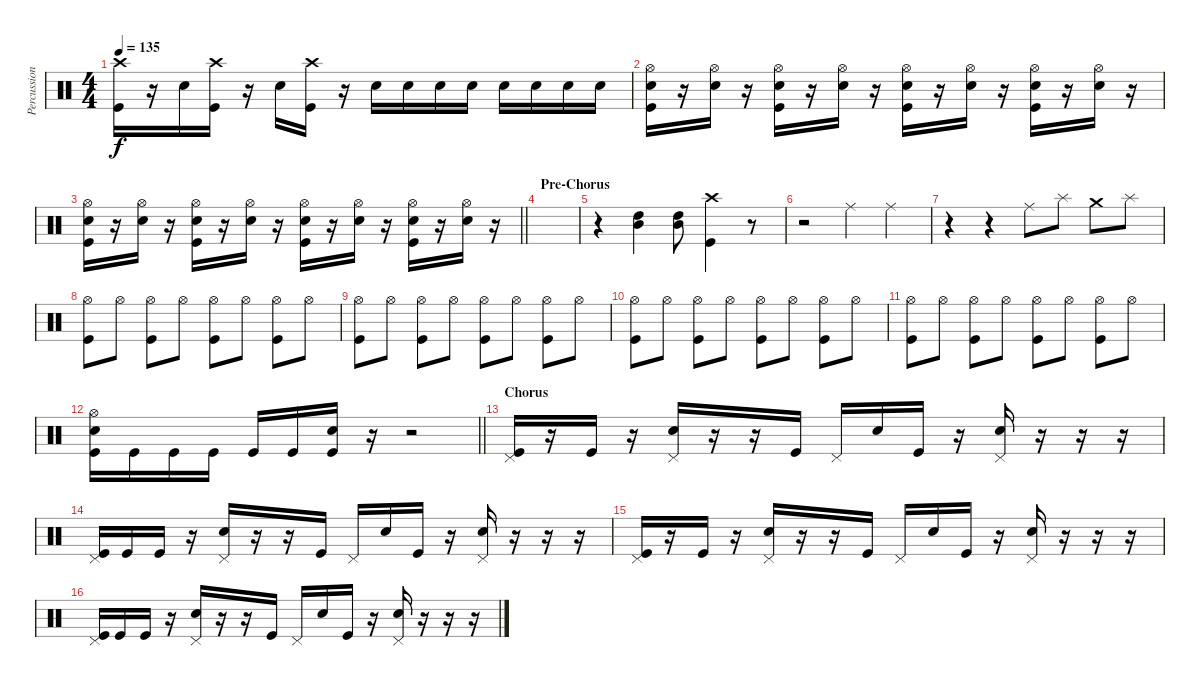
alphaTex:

\track ("Percussion" "Percussion") {instrument percussion}
\staff {score}
\articulation defaults
\ts (4 4)
\tempo 135
\clef neutral
\ks c
("Crash high (hit)" "Kick (hit)").16{dy f} r.16 "Snare (hit) 2".16 ("Crash high (hit)" "Kick (hit)").16 r.16 "Snare (hit) 2".16 ("Crash high (hit)" "Kick (hit)").16 r.16 "Snare (hit) 2".16 "Snare (hit) 2".16 "Snare (hit) 2".16 "Snare (hit) 2".16 "Snare (hit) 2".16 "Snare (hit) 2".16 "Snare (hit) 2".16 "Snare (hit) 2".16 |
("Hi-Hat (open)" "Snare (hit) 2" "Kick (hit)").16 r.16 ("Hi-Hat (open)" "Snare (hit) 2").16 r.16 ("Hi-Hat (open)" "Snare (hit) 2" "Kick (hit)").16 r.16 ("Hi-Hat (open)" "Snare (hit) 2").16 r.16 ("Hi-Hat (open)" "Snare (hit) 2" "Kick (hit)").16 r.16 ("Hi-Hat (open)" "Snare (hit) 2").16 r.16 ("Hi-Hat (open)" "Snare (hit) 2" "Kick (hit)").16 r.16 ("Hi-Hat (open)" "Snare (hit) 2").16 r.16 |
\barLineRight lightlight
("Hi-Hat (open)" "Snare (hit) 2" "Kick (hit)").16 r.16 ("Hi-Hat (open)" "Snare (hit) 2").16 r.16 ("Hi-Hat (open)" "Snare (hit) 2" "Kick (hit)").16 r.16 ("Hi-Hat (open)" "Snare (hit) 2").16 r.16 ("Hi-Hat (open)" "Snare (hit) 2" "Kick (hit)").16 r.16 ("Hi-Hat (open)" "Snare (hit) 2").16 r.16 ("Hi-Hat (open)" "Snare (hit) 2" "Kick (hit)").16 r.16 ("Hi-Hat (open)" "Snare (hit) 2").16 r.16 |
\section ("" "Pre-Chorus")
|
r.4 ("Mid Tom (hit)" "High Tom (hit)").4 ("Mid Tom (hit)" "High Tom (hit)").8 ("Crash high (hit)" "Kick (hit)").4 r.8 |
r.2 "Ride (middle)".4 "Ride (middle)".4 |
r.4 r.4 "Ride (middle)".8 "Splash (hit)".8 "Crash medium (hit)".8 "Splash (hit)".8 |
("Hi-Hat (open)" "Kick (hit)").8 "Hi-Hat (open)".8 ("Hi-Hat (open)" "Kick (hit)").8 "Hi-Hat (open)".8 ("Hi-Hat (open)" "Kick (hit)").8 "Hi-Hat (open)".8 ("Hi-Hat (open)" "Kick (hit)").8 "Hi-Hat (open)".8 |
("Hi-Hat (open)" "Kick (hit)").8 "Hi-Hat (open)".8 ("Hi-Hat (open)" "Kick (hit)").8 "Hi-Hat (open)".8 ("Hi-Hat (open)" "Kick (hit)").8 "Hi-Hat (open)".8 ("Hi-Hat (open)" "Kick (hit)").8 "Hi-Hat (open)".8 |
("Hi-Hat (open)" "Kick (hit)").8 "Hi-Hat (open)".8 ("Hi-Hat (open)" "Kick (hit)").8 "Hi-Hat (open)".8 ("Hi-Hat (open)" "Kick (hit)").8 "Hi-Hat (open)".8 ("Hi-Hat (open)" "Kick (hit)").8 "Hi-Hat (open)".8 |
("Hi-Hat (open)" "Kick (hit)").8 "Hi-Hat (open)".8 ("Hi-Hat (open)" "Kick (hit)").8 "Hi-Hat (open)".8 ("Hi-Hat (open)" "Kick (hit)").8 "Hi-Hat (open)".8 ("Hi-Hat (open)" "Kick (hit)").8 "Hi-Hat (open)".8 |
\barLineRight lightlight
("Hi-Hat (open)" "Snare (hit) 2" "Kick (hit)").16 "Kick (hit)".16 "Kick (hit)".16 "Kick (hit)".16 "Kick (hit)".16 "Kick (hit)".16 ("Snare (hit) 2" "Kick (hit)").16 r.16 r.2 |
\section ("" "Chorus")
("Pedal Hi-Hat (hit)" "Kick (hit)").16 r.16 "Kick (hit)".16 r.16 ("Pedal Hi-Hat (hit)" "Snare (hit) 2").16 r.16 r.16 "Kick (hit)".16 "Pedal Hi-Hat (hit)".16 "Snare (hit) 2".16 "Kick (hit)".16 r.16 ("Pedal Hi-Hat (hit)" "Snare (hit) 2").16 r.16 r.16 r.16 |
("Pedal Hi-Hat (hit)" "Kick (hit)").16 "Kick (hit)".16 "Kick (hit)".16 r.16 ("Pedal Hi-Hat (hit)" "Snare (hit) 2").16 r.16 r.16 "Kick (hit)".16 "Pedal Hi-Hat (hit)".16 "Snare (hit) 2".16 "Kick (hit)".16 r.16 ("Pedal Hi-Hat (hit)" "Snare (hit) 2").16 r.16 r.16 r.16 |
("Pedal Hi-Hat (hit)" "Kick (hit)").16 r.16 "Kick (hit)".16 r.16 ("Pedal Hi-Hat (hit)" "Snare (hit) 2").16 r.16 r.16 "Kick (hit)".16 "Pedal Hi-Hat (hit)".16 "Snare (hit) 2".16 "Kick (hit)".16 r.16 ("Pedal Hi-Hat (hit)" "Snare (hit) 2").16 r.16 r.16 r.16 |
("Pedal Hi-Hat (hit)" "Kick (hit)").16 "Kick (hit)".16 "Kick (hit)".16 r.16 ("Pedal Hi-Hat (hit)" "Snare (hit) 2").16 r.16 r.16 "Kick (hit)".16 "Pedal Hi-Hat (hit)".16 "Snare (hit) 2".16 "Kick (hit)".16 r.16 ("Pedal Hi-Hat (hit)" "Snare (hit) 2").16 r.16 r.16 r.16
